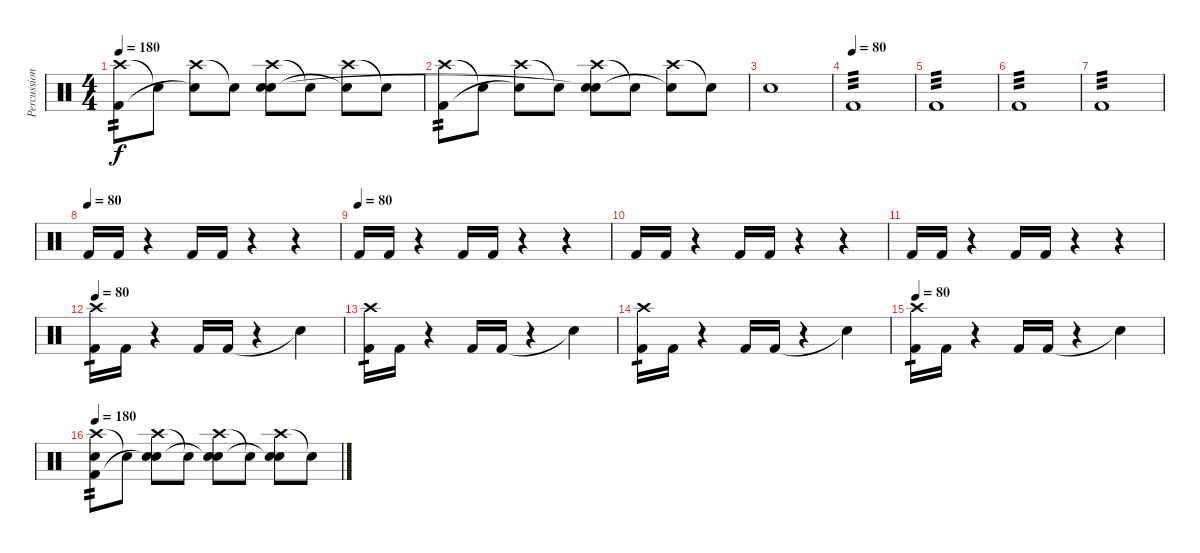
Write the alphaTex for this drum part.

\track ("Percussion" "Percussion") {instrument percussion}
\staff {score}
\articulation defaults
\ts (4 4)
\tempo 180
\clef neutral
\ks c
("Crash high (hit)" "Kick (hit) 2").8{tp 2 dy f} "Snare (hit)"{t}.8 ("Crash high (hit)" "Snare (hit)"{t}).8 "Snare (hit)"{t}.8 ("Crash high (hit)" "Electric Snare (hit)" "Snare (hit)"{t}).8 "Snare (hit)"{t}.8 ("Crash high (hit)" "Snare (hit)"{t}).8 "Snare (hit)"{t}.8 |
("Crash high (hit)" "Kick (hit) 2").8{tp 2} "Snare (hit)"{t}.8 ("Crash high (hit)" "Snare (hit)"{t}).8 "Snare (hit)"{t}.8 ("Crash high (hit)" "Electric Snare (hit)" "Snare (hit)"{t}).8 "Snare (hit)"{t}.8 ("Crash high (hit)" "Snare (hit)"{t}).8 "Snare (hit)"{t}.8 |
"Electric Snare (hit)".1 |
\tempo (80)
"Kick (hit) 2".1{tp 3} |
"Kick (hit) 2".1{tp 3} |
"Kick (hit) 2".1{tp 3} |
"Kick (hit) 2".1{tp 3} |
\tempo (80)
"Kick (hit) 2".16 "Kick (hit) 2".16 r.4 "Kick (hit) 2".16 "Kick (hit) 2".16 r.4 r.4 |
\tempo (80)
"Kick (hit) 2".16 "Kick (hit) 2".16 r.4 "Kick (hit) 2".16 "Kick (hit) 2".16 r.4 r.4 |
"Kick (hit) 2".16 "Kick (hit) 2".16 r.4 "Kick (hit) 2".16 "Kick (hit) 2".16 r.4 r.4 |
"Kick (hit) 2".16 "Kick (hit) 2".16 r.4 "Kick (hit) 2".16 "Kick (hit) 2".16 r.4 r.4 |
\tempo 80
("Crash high (hit)" "Kick (hit) 2").16{tp 1} "Kick (hit) 2".16 r.4 "Kick (hit) 2".16 "Kick (hit) 2".16 r.4 "Snare (hit)"{t}.4 |
("Crash high (hit)" "Kick (hit) 2").16{tp 1} "Kick (hit) 2".16 r.4 "Kick (hit) 2".16 "Kick (hit) 2".16 r.4 "Snare (hit)"{t}.4 |
("Crash high (hit)" "Kick (hit) 2").16{tp 1} "Kick (hit) 2".16 r.4 "Kick (hit) 2".16 "Kick (hit) 2".16 r.4 "Snare (hit)"{t}.4 |
\tempo 80
("Crash high (hit)" "Kick (hit) 2").16{tp 1} "Kick (hit) 2".16 r.4 "Kick (hit) 2".16 "Kick (hit) 2".16 r.4 "Snare (hit)"{t}.4 |
\tempo 180
("Crash high (hit)" "Electric Snare (hit)" "Kick (hit) 2").8{tp 2} "Snare (hit)"{t}.8 ("Crash high (hit)" "Electric Snare (hit)" "Snare (hit)"{t}).8 "Snare (hit)"{t}.8 ("Crash high (hit)" "Electric Snare (hit)" "Snare (hit)"{t}).8 "Snare (hit)"{t}.8 ("Crash high (hit)" "Electric Snare (hit)" "Snare (hit)"{t}).8 "Snare (hit)"{t}.8
